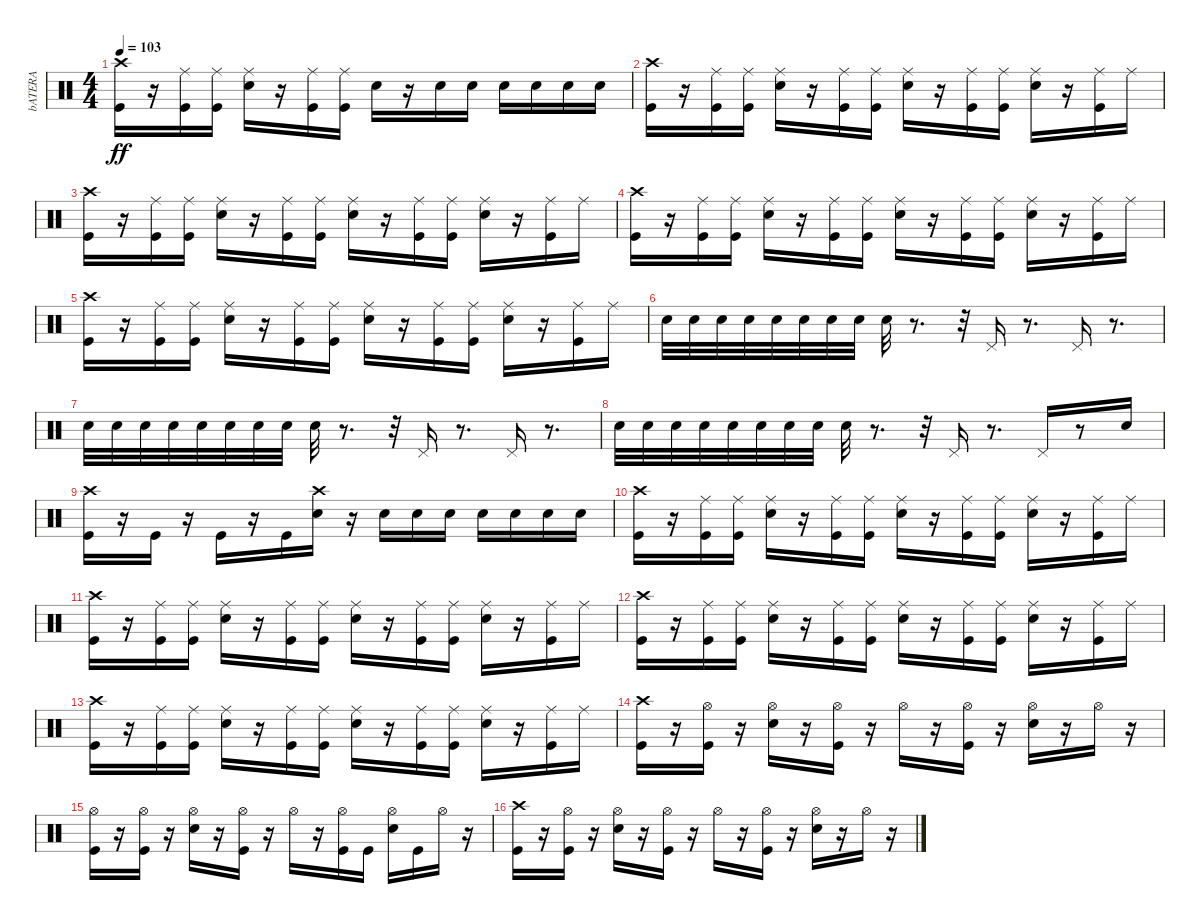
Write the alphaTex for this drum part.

\track ("bATERA" "bATERA") {instrument percussion}
\staff {score}
\articulation defaults
\ts (4 4)
\tempo 103
\clef neutral
\ks c
("Kick (hit)" "Crash high (hit)").16{dy ff} r.16 ("Kick (hit)" "Ride (middle)").16 ("Kick (hit)" "Ride (middle)").16 ("Ride (middle)" "Snare (hit) 2").16 r.16 ("Kick (hit)" "Ride (middle)").16 ("Kick (hit)" "Ride (middle)").16 "Snare (hit) 2".16 r.16 "Snare (hit) 2".16 "Snare (hit) 2".16 "Snare (hit) 2".16 "Snare (hit) 2".16 "Snare (hit) 2".16 "Snare (hit) 2".16 |
("Crash high (hit)" "Kick (hit)").16 r.16 ("Kick (hit)" "Ride (middle)").16 ("Kick (hit)" "Ride (middle)").16 ("Ride (middle)" "Snare (hit) 2").16 r.16 ("Kick (hit)" "Ride (middle)").16 ("Kick (hit)" "Ride (middle)").16 ("Ride (middle)" "Snare (hit) 2").16 r.16 ("Kick (hit)" "Ride (middle)").16 ("Kick (hit)" "Ride (middle)").16 ("Ride (middle)" "Snare (hit) 2").16 r.16 ("Kick (hit)" "Ride (middle)").16 "Ride (middle)".16 |
("Crash high (hit)" "Kick (hit)").16 r.16 ("Kick (hit)" "Ride (middle)").16 ("Kick (hit)" "Ride (middle)").16 ("Ride (middle)" "Snare (hit) 2").16 r.16 ("Kick (hit)" "Ride (middle)").16 ("Kick (hit)" "Ride (middle)").16 ("Ride (middle)" "Snare (hit) 2").16 r.16 ("Kick (hit)" "Ride (middle)").16 ("Kick (hit)" "Ride (middle)").16 ("Ride (middle)" "Snare (hit) 2").16 r.16 ("Kick (hit)" "Ride (middle)").16 "Ride (middle)".16 |
("Crash high (hit)" "Kick (hit)").16 r.16 ("Kick (hit)" "Ride (middle)").16 ("Kick (hit)" "Ride (middle)").16 ("Ride (middle)" "Snare (hit) 2").16 r.16 ("Kick (hit)" "Ride (middle)").16 ("Kick (hit)" "Ride (middle)").16 ("Ride (middle)" "Snare (hit) 2").16 r.16 ("Kick (hit)" "Ride (middle)").16 ("Kick (hit)" "Ride (middle)").16 ("Ride (middle)" "Snare (hit) 2").16 r.16 ("Kick (hit)" "Ride (middle)").16 "Ride (middle)".16 |
("Crash high (hit)" "Kick (hit)").16 r.16 ("Kick (hit)" "Ride (middle)").16 ("Kick (hit)" "Ride (middle)").16 ("Ride (middle)" "Snare (hit) 2").16 r.16 ("Kick (hit)" "Ride (middle)").16 ("Kick (hit)" "Ride (middle)").16 ("Ride (middle)" "Snare (hit) 2").16 r.16 ("Kick (hit)" "Ride (middle)").16 ("Kick (hit)" "Ride (middle)").16 ("Ride (middle)" "Snare (hit) 2").16 r.16 ("Kick (hit)" "Ride (middle)").16 "Ride (middle)".16 |
"Snare (hit) 2".32 "Snare (hit) 2".32 "Snare (hit) 2".32 "Snare (hit) 2".32 "Snare (hit) 2".32 "Snare (hit) 2".32 "Snare (hit) 2".32 "Snare (hit) 2".32 "Snare (hit) 2".32 r.8{d} r.32 "Pedal Hi-Hat (hit)".16 r.8{d} "Pedal Hi-Hat (hit)".16 r.8{d} |
"Snare (hit) 2".32 "Snare (hit) 2".32 "Snare (hit) 2".32 "Snare (hit) 2".32 "Snare (hit) 2".32 "Snare (hit) 2".32 "Snare (hit) 2".32 "Snare (hit) 2".32 "Snare (hit) 2".32 r.8{d} r.32 "Pedal Hi-Hat (hit)".16 r.8{d} "Pedal Hi-Hat (hit)".16 r.8{d} |
"Snare (hit) 2".32 "Snare (hit) 2".32 "Snare (hit) 2".32 "Snare (hit) 2".32 "Snare (hit) 2".32 "Snare (hit) 2".32 "Snare (hit) 2".32 "Snare (hit) 2".32 "Snare (hit) 2".32 r.8{d} r.32 "Pedal Hi-Hat (hit)".16 r.8{d} "Pedal Hi-Hat (hit)".16 r.8 "Snare (hit) 2".16 |
("Kick (hit)" "Crash high (hit)").16 r.16 "Kick (hit)".16 r.16 "Kick (hit)".16 r.16 "Kick (hit)".16 ("Crash high (hit)" "Snare (hit) 2").16 r.16 "Snare (hit) 2".16 "Snare (hit) 2".16 "Snare (hit) 2".16 "Snare (hit) 2".16 "Snare (hit) 2".16 "Snare (hit) 2".16 "Snare (hit) 2".16 |
("Crash high (hit)" "Kick (hit)").16 r.16 ("Kick (hit)" "Ride (middle)").16 ("Kick (hit)" "Ride (middle)").16 ("Ride (middle)" "Snare (hit) 2").16 r.16 ("Kick (hit)" "Ride (middle)").16 ("Kick (hit)" "Ride (middle)").16 ("Ride (middle)" "Snare (hit) 2").16 r.16 ("Kick (hit)" "Ride (middle)").16 ("Kick (hit)" "Ride (middle)").16 ("Ride (middle)" "Snare (hit) 2").16 r.16 ("Kick (hit)" "Ride (middle)").16 "Ride (middle)".16 |
("Crash high (hit)" "Kick (hit)").16 r.16 ("Kick (hit)" "Ride (middle)").16 ("Kick (hit)" "Ride (middle)").16 ("Ride (middle)" "Snare (hit) 2").16 r.16 ("Kick (hit)" "Ride (middle)").16 ("Kick (hit)" "Ride (middle)").16 ("Ride (middle)" "Snare (hit) 2").16 r.16 ("Kick (hit)" "Ride (middle)").16 ("Kick (hit)" "Ride (middle)").16 ("Ride (middle)" "Snare (hit) 2").16 r.16 ("Kick (hit)" "Ride (middle)").16 "Ride (middle)".16 |
("Crash high (hit)" "Kick (hit)").16 r.16 ("Kick (hit)" "Ride (middle)").16 ("Kick (hit)" "Ride (middle)").16 ("Ride (middle)" "Snare (hit) 2").16 r.16 ("Kick (hit)" "Ride (middle)").16 ("Kick (hit)" "Ride (middle)").16 ("Ride (middle)" "Snare (hit) 2").16 r.16 ("Kick (hit)" "Ride (middle)").16 ("Kick (hit)" "Ride (middle)").16 ("Ride (middle)" "Snare (hit) 2").16 r.16 ("Kick (hit)" "Ride (middle)").16 "Ride (middle)".16 |
("Crash high (hit)" "Kick (hit)").16 r.16 ("Kick (hit)" "Ride (middle)").16 ("Kick (hit)" "Ride (middle)").16 ("Ride (middle)" "Snare (hit) 2").16 r.16 ("Kick (hit)" "Ride (middle)").16 ("Kick (hit)" "Ride (middle)").16 ("Ride (middle)" "Snare (hit) 2").16 r.16 ("Kick (hit)" "Ride (middle)").16 ("Kick (hit)" "Ride (middle)").16 ("Ride (middle)" "Snare (hit) 2").16 r.16 ("Kick (hit)" "Ride (middle)").16 "Ride (middle)".16 |
("Crash high (hit)" "Kick (hit)").16 r.16 ("Kick (hit)" "Hi-Hat (open)").16 r.16 ("Snare (hit) 2" "Hi-Hat (open)").16 r.16 ("Kick (hit)" "Hi-Hat (open)").16 r.16 "Hi-Hat (open)".16 r.16 ("Kick (hit)" "Hi-Hat (open)").16 r.16 ("Hi-Hat (open)" "Snare (hit) 2").16 r.16 "Hi-Hat (open)".16 r.16 |
("Kick (hit)" "Hi-Hat (open)").16 r.16 ("Kick (hit)" "Hi-Hat (open)").16 r.16 ("Snare (hit) 2" "Hi-Hat (open)").16 r.16 ("Kick (hit)" "Hi-Hat (open)").16 r.16 "Hi-Hat (open)".16 r.16 ("Kick (hit)" "Hi-Hat (open)").16 "Kick (hit)".16 ("Hi-Hat (open)" "Snare (hit) 2").16 "Kick (hit)".16 "Hi-Hat (open)".16 r.16 |
("Kick (hit)" "Crash high (hit)").16 r.16 ("Kick (hit)" "Hi-Hat (open)").16 r.16 ("Snare (hit) 2" "Hi-Hat (open)").16 r.16 ("Kick (hit)" "Hi-Hat (open)").16 r.16 "Hi-Hat (open)".16 r.16 ("Kick (hit)" "Hi-Hat (open)").16 r.16 ("Hi-Hat (open)" "Snare (hit) 2").16 r.16 "Hi-Hat (open)".16 r.16
